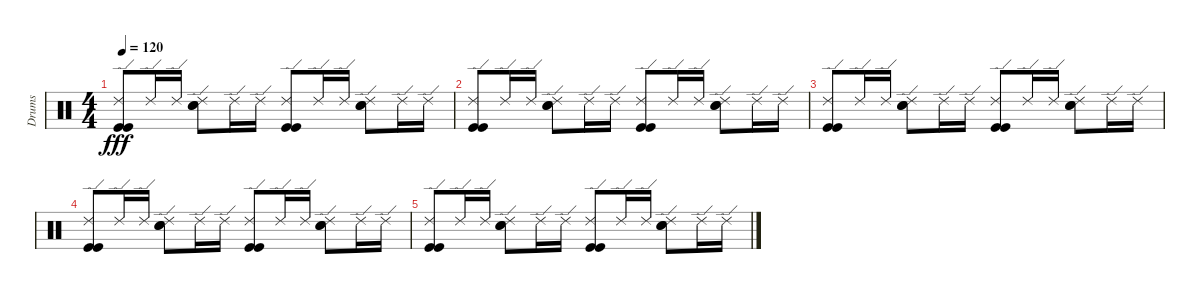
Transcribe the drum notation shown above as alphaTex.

\track ("Drums" "Drums") {instrument percussion}
\staff {score}
\articulation defaults
\ts (4 4)
\tempo 120
\clef neutral
\ks c
("Ride (edge) 2" "Kick (hit)" "Kick (hit)").8{dy fff} "Ride (edge) 2".16 "Ride (edge) 2".16 ("Ride (edge) 2" "Electric Snare (hit)" "Electric Snare (hit)").8 "Ride (edge) 2".16 "Ride (edge) 2".16 ("Ride (edge) 2" "Kick (hit)" "Kick (hit)").8 "Ride (edge) 2".16 "Ride (edge) 2".16 ("Ride (edge) 2" "Electric Snare (hit)" "Electric Snare (hit)").8 "Ride (edge) 2".16 "Ride (edge) 2".16 |
("Ride (edge) 2" "Kick (hit)" "Kick (hit)").8 "Ride (edge) 2".16 "Ride (edge) 2".16 ("Ride (edge) 2" "Electric Snare (hit)" "Electric Snare (hit)").8 "Ride (edge) 2".16 "Ride (edge) 2".16 ("Ride (edge) 2" "Kick (hit)" "Kick (hit)").8 "Ride (edge) 2".16 "Ride (edge) 2".16 ("Ride (edge) 2" "Electric Snare (hit)" "Electric Snare (hit)").8 "Ride (edge) 2".16 "Ride (edge) 2".16 |
("Ride (edge) 2" "Kick (hit)" "Kick (hit)").8 "Ride (edge) 2".16 "Ride (edge) 2".16 ("Ride (edge) 2" "Electric Snare (hit)" "Electric Snare (hit)").8 "Ride (edge) 2".16 "Ride (edge) 2".16 ("Ride (edge) 2" "Kick (hit)" "Kick (hit)").8 "Ride (edge) 2".16 "Ride (edge) 2".16 ("Ride (edge) 2" "Electric Snare (hit)" "Electric Snare (hit)").8 "Ride (edge) 2".16 "Ride (edge) 2".16 |
("Ride (edge) 2" "Kick (hit)" "Kick (hit)").8 "Ride (edge) 2".16 "Ride (edge) 2".16 ("Ride (edge) 2" "Electric Snare (hit)" "Electric Snare (hit)").8 "Ride (edge) 2".16 "Ride (edge) 2".16 ("Ride (edge) 2" "Kick (hit)" "Kick (hit)").8 "Ride (edge) 2".16 "Ride (edge) 2".16 ("Ride (edge) 2" "Electric Snare (hit)" "Electric Snare (hit)").8 "Ride (edge) 2".16 "Ride (edge) 2".16 |
("Ride (edge) 2" "Kick (hit)" "Kick (hit)").8 "Ride (edge) 2".16 "Ride (edge) 2".16 ("Ride (edge) 2" "Electric Snare (hit)" "Electric Snare (hit)").8 "Ride (edge) 2".16 "Ride (edge) 2".16 ("Ride (edge) 2" "Kick (hit)" "Kick (hit)").8 "Ride (edge) 2".16 "Ride (edge) 2".16 ("Ride (edge) 2" "Electric Snare (hit)" "Electric Snare (hit)").8 "Ride (edge) 2".16 "Ride (edge) 2".16
